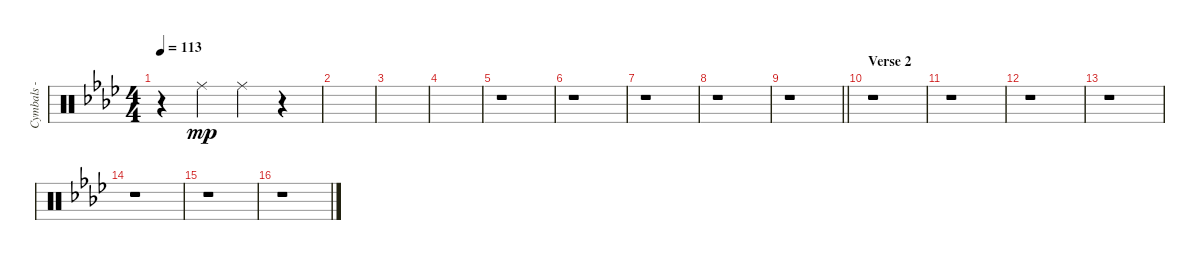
\track ("Cymbals - ride" "Cymbals - ") {instrument percussion}
\staff {score}
\articulation defaults
\ts (4 4)
\tempo 113
\clef neutral
\ks fminor
r.4{dy mp} "Ride (middle)".4 "Ride (middle)".4 r.4 |
|
|
|
r.1 |
r.1 |
r.1 |
r.1 |
\barLineRight lightlight
r.1 |
\section ("" "Verse 2")
r.1 |
r.1 |
r.1 |
r.1 |
r.1 |
r.1 |
r.1
